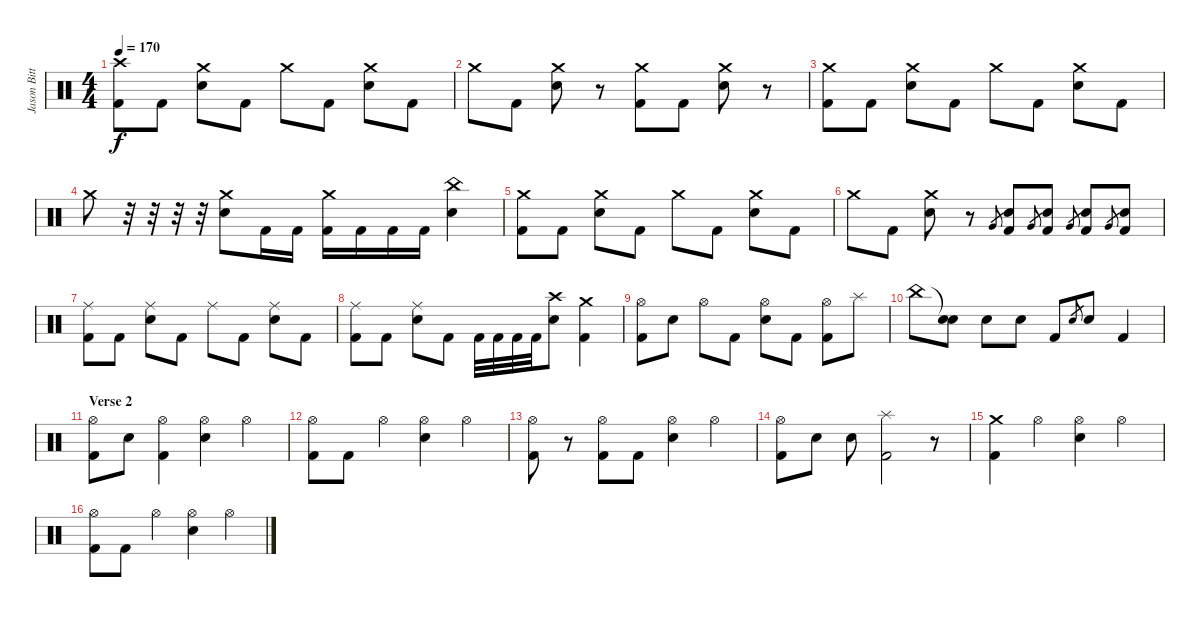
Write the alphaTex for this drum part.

\track ("Jason Bittner" "Jason Bitt") {instrument percussion}
\staff {score}
\articulation defaults
\ts (4 4)
\tempo 170
\clef neutral
\ks c
("Crash high (hit)" "Kick (hit) 2").8{dy f} "Kick (hit) 2".8 ("Crash medium (hit)" "Electric Snare (hit)").8 "Kick (hit) 2".8 "Crash medium (hit)".8 "Kick (hit) 2".8 ("Crash medium (hit)" "Electric Snare (hit)").8 "Kick (hit) 2".8 |
"Crash medium (hit)".8 "Kick (hit) 2".8 ("Crash medium (hit)" "Electric Snare (hit)").8 r.8 ("Crash medium (hit)" "Kick (hit) 2").8 "Kick (hit) 2".8 ("Crash medium (hit)" "Electric Snare (hit)").8 r.8 |
("Crash medium (hit)" "Kick (hit) 2").8 "Kick (hit) 2".8 ("Crash medium (hit)" "Electric Snare (hit)").8 "Kick (hit) 2".8 "Crash medium (hit)".8 "Kick (hit) 2".8 ("Crash medium (hit)" "Electric Snare (hit)").8 "Kick (hit) 2".8 |
"Crash medium (hit)".8 r.32 r.32 r.32 r.32 ("Crash medium (hit)" "Electric Snare (hit)").8 "Kick (hit) 2".16 "Kick (hit) 2".16 ("Crash medium (hit)" "Kick (hit) 2").16 "Kick (hit) 2".16 "Kick (hit) 2".16 "Kick (hit) 2".16 ("China (hit)" "Electric Snare (hit)").4 |
("Crash medium (hit)" "Kick (hit) 2").8 "Kick (hit) 2".8 ("Crash medium (hit)" "Electric Snare (hit)").8 "Kick (hit) 2".8 "Crash medium (hit)".8 "Kick (hit) 2".8 ("Crash medium (hit)" "Electric Snare (hit)").8 "Kick (hit) 2".8 |
"Crash medium (hit)".8 "Kick (hit) 2".8 ("Crash medium (hit)" "Electric Snare (hit)").8 r.8 "Very Low Tom (hit)".8{gr} ("Kick (hit) 2" "Electric Snare (hit)").8 "Very Low Tom (hit)".8{gr} ("Kick (hit) 2" "Electric Snare (hit)").8 "Very Low Tom (hit)".8{gr} ("Kick (hit) 2" "Electric Snare (hit)").8 "Very Low Tom (hit)".8{gr} ("Kick (hit) 2" "Electric Snare (hit)").8 |
("Ride (middle)" "Kick (hit) 2").8 "Kick (hit) 2".8 ("Ride (middle)" "Electric Snare (hit)").8 "Kick (hit) 2".8 "Ride (middle)".8 "Kick (hit) 2".8 ("Ride (middle)" "Electric Snare (hit)").8 "Kick (hit) 2".8 |
("Ride (middle)" "Kick (hit) 2").8 "Kick (hit) 2".8 ("Ride (middle)" "Electric Snare (hit)").8 "Kick (hit) 2".8 "Kick (hit) 2".32 "Kick (hit) 2".32 "Kick (hit) 2".32 "Kick (hit) 2".32 ("Crash high (hit)" "Electric Snare (hit)").8 ("Crash medium (hit)" "Kick (hit) 2").4 |
("Hi-Hat (open)" "Kick (hit) 2").8 "Electric Snare (hit)".8 "Hi-Hat (open)".8 "Kick (hit) 2".8 ("Hi-Hat (open)" "Electric Snare (hit)").8 "Kick (hit) 2".8 ("Hi-Hat (open)" "Kick (hit) 2").8 "Splash (hit)".8 |
"China (hit)".8 ("Snare (hit)"{t} "Electric Snare (hit)").8 "Electric Snare (hit)".8 "Electric Snare (hit)".8 "Kick (hit) 2".8 "Electric Snare (hit)".8{gr} "Electric Snare (hit)".8 "Kick (hit) 2".4 |
\section ("" "Verse 2")
("Hi-Hat (open)" "Kick (hit) 2").8 "Electric Snare (hit)".8 ("Hi-Hat (open)" "Kick (hit) 2").4 ("Hi-Hat (open)" "Electric Snare (hit)").4 "Hi-Hat (open)".4 |
("Hi-Hat (open)" "Kick (hit) 2").8 "Kick (hit) 2".8 "Hi-Hat (open)".4 ("Hi-Hat (open)" "Electric Snare (hit)").4 "Hi-Hat (open)".4 |
("Hi-Hat (open)" "Kick (hit) 2").8 r.8 ("Hi-Hat (open)" "Kick (hit) 2").8 "Kick (hit) 2".8 ("Hi-Hat (open)" "Electric Snare (hit)").4 "Hi-Hat (open)".4 |
("Hi-Hat (open)" "Kick (hit) 2").8 "Electric Snare (hit)".8 "Electric Snare (hit)".8 ("Splash (hit)" "Kick (hit) 2").2 r.8 |
("Crash medium (hit)" "Kick (hit) 2").4 "Hi-Hat (open)".4 ("Hi-Hat (open)" "Electric Snare (hit)").4 "Hi-Hat (open)".4 |
("Hi-Hat (open)" "Kick (hit) 2").8 "Kick (hit) 2".8 "Hi-Hat (open)".4 ("Hi-Hat (open)" "Electric Snare (hit)").4 "Hi-Hat (open)".4
